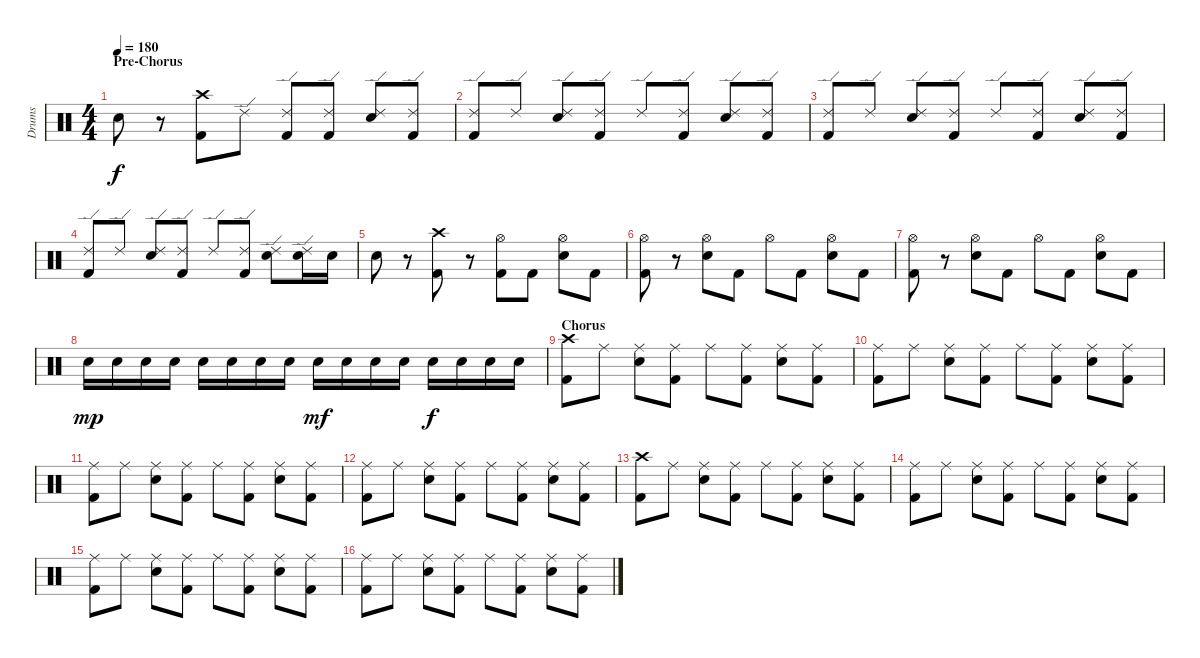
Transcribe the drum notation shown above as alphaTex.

\track ("Drums" "Drums") {instrument percussion}
\staff {score}
\articulation defaults
\ts (4 4)
\section ("" "Pre-Chorus")
\tempo 180
\clef neutral
\ks c "Electric Snare (hit)".8{dy f}
r.8 ("Crash high (hit)" "Kick (hit) 2").8 "Ride (edge) 2".8 ("Ride (edge) 2" "Kick (hit) 2").8 ("Ride (edge) 2" "Kick (hit) 2").8 ("Ride (edge) 2" "Electric Snare (hit)").8 ("Ride (edge) 2" "Kick (hit) 2").8 |
("Ride (edge) 2" "Kick (hit) 2").8 "Ride (edge) 2".8 ("Ride (edge) 2" "Electric Snare (hit)").8 ("Ride (edge) 2" "Kick (hit) 2").8 "Ride (edge) 2".8 ("Ride (edge) 2" "Kick (hit) 2").8 ("Ride (edge) 2" "Electric Snare (hit)").8 ("Ride (edge) 2" "Kick (hit) 2").8 |
("Ride (edge) 2" "Kick (hit) 2").8 "Ride (edge) 2".8 ("Ride (edge) 2" "Electric Snare (hit)").8 ("Ride (edge) 2" "Kick (hit) 2").8 "Ride (edge) 2".8 ("Ride (edge) 2" "Kick (hit) 2").8 ("Ride (edge) 2" "Electric Snare (hit)").8 ("Ride (edge) 2" "Kick (hit) 2").8 |
("Ride (edge) 2" "Kick (hit) 2").8 "Ride (edge) 2".8 ("Ride (edge) 2" "Electric Snare (hit)").8 ("Ride (edge) 2" "Kick (hit) 2").8 "Ride (edge) 2".8 ("Ride (edge) 2" "Kick (hit) 2").8 ("Ride (edge) 2" "Electric Snare (hit)").8 ("Ride (edge) 2" "Electric Snare (hit)").16 "Electric Snare (hit)".16 |
"Electric Snare (hit)".8 r.8 ("Crash high (hit)" "Kick (hit) 2").8 r.8 ("Hi-Hat (open)" "Kick (hit) 2").8 "Kick (hit) 2".8 ("Hi-Hat (open)" "Electric Snare (hit)").8 "Kick (hit) 2".8 |
("Hi-Hat (open)" "Kick (hit) 2").8 r.8 ("Hi-Hat (open)" "Electric Snare (hit)").8 "Kick (hit) 2".8 "Hi-Hat (open)".8 "Kick (hit) 2".8 ("Hi-Hat (open)" "Electric Snare (hit)").8 "Kick (hit) 2".8 |
("Hi-Hat (open)" "Kick (hit) 2").8 r.8 ("Hi-Hat (open)" "Electric Snare (hit)").8 "Kick (hit) 2".8 "Hi-Hat (open)".8 "Kick (hit) 2".8 ("Hi-Hat (open)" "Electric Snare (hit)").8 "Kick (hit) 2".8 |
"Electric Snare (hit)".16{dy mp} "Electric Snare (hit)".16 "Electric Snare (hit)".16 "Electric Snare (hit)".16 "Electric Snare (hit)".16 "Electric Snare (hit)".16 "Electric Snare (hit)".16 "Electric Snare (hit)".16 "Electric Snare (hit)".16{dy mf} "Electric Snare (hit)".16 "Electric Snare (hit)".16 "Electric Snare (hit)".16 "Electric Snare (hit)".16{dy f} "Electric Snare (hit)".16 "Electric Snare (hit)".16 "Electric Snare (hit)".16 |
\section ("" "Chorus")
("Crash high (hit)" "Kick (hit) 2").8 "Ride (middle)".8 ("Ride (middle)" "Electric Snare (hit)").8 ("Ride (middle)" "Kick (hit) 2").8 "Ride (middle)".8 ("Ride (middle)" "Kick (hit) 2").8 ("Ride (middle)" "Electric Snare (hit)").8 ("Ride (middle)" "Kick (hit) 2").8 |
("Ride (middle)" "Kick (hit) 2").8 "Ride (middle)".8 ("Ride (middle)" "Electric Snare (hit)").8 ("Ride (middle)" "Kick (hit) 2").8 "Ride (middle)".8 ("Ride (middle)" "Kick (hit) 2").8 ("Ride (middle)" "Electric Snare (hit)").8 ("Ride (middle)" "Kick (hit) 2").8 |
("Ride (middle)" "Kick (hit) 2").8 "Ride (middle)".8 ("Ride (middle)" "Electric Snare (hit)").8 ("Ride (middle)" "Kick (hit) 2").8 "Ride (middle)".8 ("Ride (middle)" "Kick (hit) 2").8 ("Ride (middle)" "Electric Snare (hit)").8 ("Ride (middle)" "Kick (hit) 2").8 |
("Ride (middle)" "Kick (hit) 2").8 "Ride (middle)".8 ("Ride (middle)" "Electric Snare (hit)").8 ("Ride (middle)" "Kick (hit) 2").8 "Ride (middle)".8 ("Ride (middle)" "Kick (hit) 2").8 ("Ride (middle)" "Electric Snare (hit)").8 ("Ride (middle)" "Kick (hit) 2").8 |
("Crash high (hit)" "Kick (hit) 2").8 "Ride (middle)".8 ("Ride (middle)" "Electric Snare (hit)").8 ("Ride (middle)" "Kick (hit) 2").8 "Ride (middle)".8 ("Ride (middle)" "Kick (hit) 2").8 ("Ride (middle)" "Electric Snare (hit)").8 ("Ride (middle)" "Kick (hit) 2").8 |
("Ride (middle)" "Kick (hit) 2").8 "Ride (middle)".8 ("Ride (middle)" "Electric Snare (hit)").8 ("Ride (middle)" "Kick (hit) 2").8 "Ride (middle)".8 ("Ride (middle)" "Kick (hit) 2").8 ("Ride (middle)" "Electric Snare (hit)").8 ("Ride (middle)" "Kick (hit) 2").8 |
("Ride (middle)" "Kick (hit) 2").8 "Ride (middle)".8 ("Ride (middle)" "Electric Snare (hit)").8 ("Ride (middle)" "Kick (hit) 2").8 "Ride (middle)".8 ("Ride (middle)" "Kick (hit) 2").8 ("Ride (middle)" "Electric Snare (hit)").8 ("Ride (middle)" "Kick (hit) 2").8 |
("Ride (middle)" "Kick (hit) 2").8 "Ride (middle)".8 ("Ride (middle)" "Electric Snare (hit)").8 ("Ride (middle)" "Kick (hit) 2").8 "Ride (middle)".8 ("Ride (middle)" "Kick (hit) 2").8 ("Ride (middle)" "Electric Snare (hit)").8 ("Ride (middle)" "Kick (hit) 2").8
